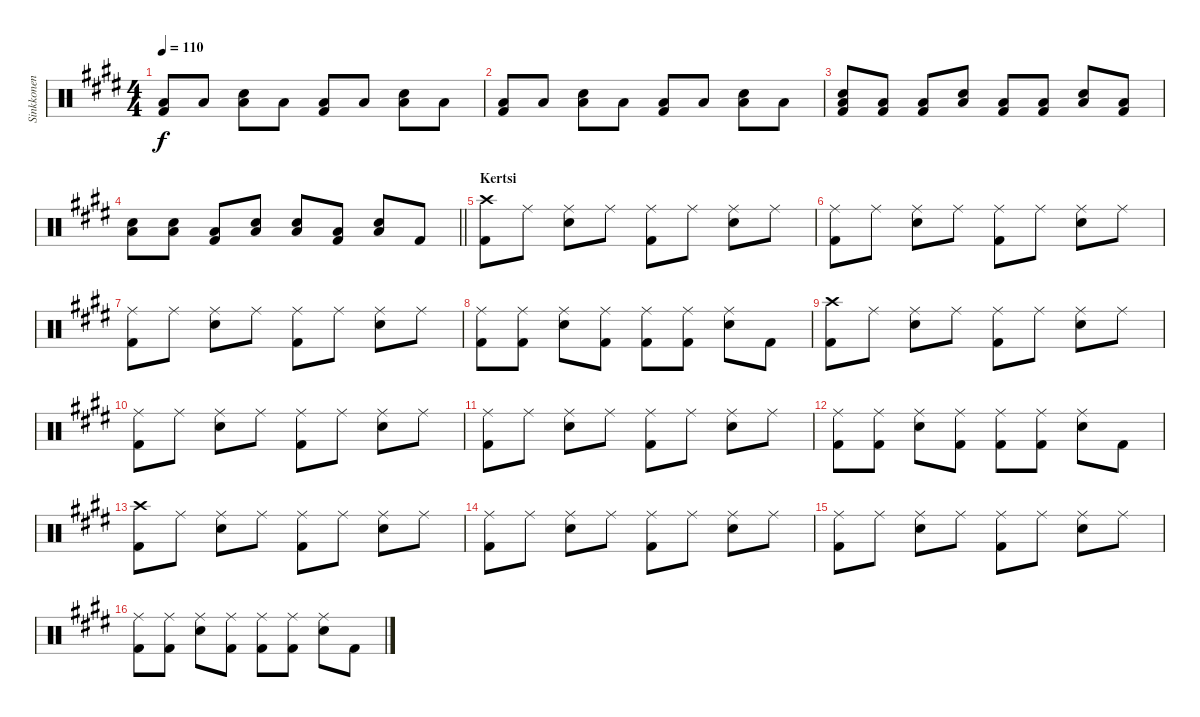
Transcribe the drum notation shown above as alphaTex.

\track ("Sinkkonen" "Sinkkonen") {instrument percussion}
\staff {score}
\articulation defaults
\ts (4 4)
\tempo 110
\clef neutral
\ks c#minor
("Low Floor Tom (hit)" "Kick (hit) 2").8{dy f} "Low Floor Tom (hit)".8 ("Low Floor Tom (hit)" "Snare (hit) 2").8 "Low Floor Tom (hit)".8 ("Low Floor Tom (hit)" "Kick (hit) 2").8 "Low Floor Tom (hit)".8 ("Low Floor Tom (hit)" "Snare (hit) 2").8 "Low Floor Tom (hit)".8 |
("Low Floor Tom (hit)" "Kick (hit) 2").8 "Low Floor Tom (hit)".8 ("Low Floor Tom (hit)" "Snare (hit) 2").8 "Low Floor Tom (hit)".8 ("Low Floor Tom (hit)" "Kick (hit) 2").8 "Low Floor Tom (hit)".8 ("Low Floor Tom (hit)" "Snare (hit) 2").8 "Low Floor Tom (hit)".8 |
("Low Floor Tom (hit)" "Snare (hit) 2" "Kick (hit) 2").8 ("Low Floor Tom (hit)" "Kick (hit) 2").8 ("Low Floor Tom (hit)" "Kick (hit) 2").8 ("Low Floor Tom (hit)" "Snare (hit) 2").8 ("Low Floor Tom (hit)" "Kick (hit) 2").8 ("Low Floor Tom (hit)" "Kick (hit) 2").8 ("Low Floor Tom (hit)" "Snare (hit) 2").8 ("Low Floor Tom (hit)" "Kick (hit) 2").8 |
\barLineRight lightlight
("Low Floor Tom (hit)" "Snare (hit) 2").8 ("Low Floor Tom (hit)" "Snare (hit) 2").8 ("Low Floor Tom (hit)" "Kick (hit) 2").8 ("Low Floor Tom (hit)" "Snare (hit) 2").8 ("Low Floor Tom (hit)" "Snare (hit) 2").8 ("Low Floor Tom (hit)" "Kick (hit) 2").8 ("Low Floor Tom (hit)" "Snare (hit) 2").8 "Kick (hit) 2".8 |
\section ("" "Kertsi")
("Crash high (hit)" "Kick (hit) 2").8 "Ride (middle)".8 ("Ride (middle)" "Snare (hit) 2").8 "Ride (middle)".8 ("Ride (middle)" "Kick (hit) 2").8 "Ride (middle)".8 ("Ride (middle)" "Snare (hit) 2").8 "Ride (middle)".8 |
("Ride (middle)" "Kick (hit) 2").8 "Ride (middle)".8 ("Ride (middle)" "Snare (hit) 2").8 "Ride (middle)".8 ("Ride (middle)" "Kick (hit) 2").8 "Ride (middle)".8 ("Ride (middle)" "Snare (hit) 2").8 "Ride (middle)".8 |
("Ride (middle)" "Kick (hit) 2").8 "Ride (middle)".8 ("Ride (middle)" "Snare (hit) 2").8 "Ride (middle)".8 ("Ride (middle)" "Kick (hit) 2").8 "Ride (middle)".8 ("Ride (middle)" "Snare (hit) 2").8 "Ride (middle)".8 |
("Ride (middle)" "Kick (hit) 2").8 ("Ride (middle)" "Kick (hit) 2").8 ("Ride (middle)" "Snare (hit) 2").8 ("Ride (middle)" "Kick (hit) 2").8 ("Ride (middle)" "Kick (hit) 2").8 ("Ride (middle)" "Kick (hit) 2").8 ("Ride (middle)" "Snare (hit) 2").8 "Kick (hit) 2".8 |
("Crash high (hit)" "Kick (hit) 2").8 "Ride (middle)".8 ("Ride (middle)" "Snare (hit) 2").8 "Ride (middle)".8 ("Ride (middle)" "Kick (hit) 2").8 "Ride (middle)".8 ("Ride (middle)" "Snare (hit) 2").8 "Ride (middle)".8 |
("Ride (middle)" "Kick (hit) 2").8 "Ride (middle)".8 ("Ride (middle)" "Snare (hit) 2").8 "Ride (middle)".8 ("Ride (middle)" "Kick (hit) 2").8 "Ride (middle)".8 ("Ride (middle)" "Snare (hit) 2").8 "Ride (middle)".8 |
("Ride (middle)" "Kick (hit) 2").8 "Ride (middle)".8 ("Ride (middle)" "Snare (hit) 2").8 "Ride (middle)".8 ("Ride (middle)" "Kick (hit) 2").8 "Ride (middle)".8 ("Ride (middle)" "Snare (hit) 2").8 "Ride (middle)".8 |
("Ride (middle)" "Kick (hit) 2").8 ("Ride (middle)" "Kick (hit) 2").8 ("Ride (middle)" "Snare (hit) 2").8 ("Ride (middle)" "Kick (hit) 2").8 ("Ride (middle)" "Kick (hit) 2").8 ("Ride (middle)" "Kick (hit) 2").8 ("Ride (middle)" "Snare (hit) 2").8 "Kick (hit) 2".8 |
("Crash high (hit)" "Kick (hit) 2").8 "Ride (middle)".8 ("Ride (middle)" "Snare (hit) 2").8 "Ride (middle)".8 ("Ride (middle)" "Kick (hit) 2").8 "Ride (middle)".8 ("Ride (middle)" "Snare (hit) 2").8 "Ride (middle)".8 |
("Ride (middle)" "Kick (hit) 2").8 "Ride (middle)".8 ("Ride (middle)" "Snare (hit) 2").8 "Ride (middle)".8 ("Ride (middle)" "Kick (hit) 2").8 "Ride (middle)".8 ("Ride (middle)" "Snare (hit) 2").8 "Ride (middle)".8 |
("Ride (middle)" "Kick (hit) 2").8 "Ride (middle)".8 ("Ride (middle)" "Snare (hit) 2").8 "Ride (middle)".8 ("Ride (middle)" "Kick (hit) 2").8 "Ride (middle)".8 ("Ride (middle)" "Snare (hit) 2").8 "Ride (middle)".8 |
("Ride (middle)" "Kick (hit) 2").8 ("Ride (middle)" "Kick (hit) 2").8 ("Ride (middle)" "Snare (hit) 2").8 ("Ride (middle)" "Kick (hit) 2").8 ("Ride (middle)" "Kick (hit) 2").8 ("Ride (middle)" "Kick (hit) 2").8 ("Ride (middle)" "Snare (hit) 2").8 "Kick (hit) 2".8
